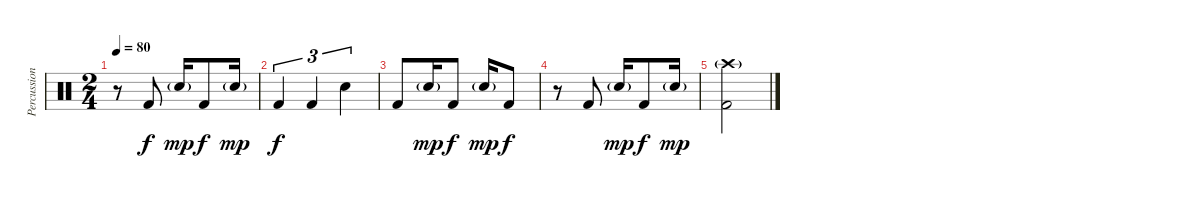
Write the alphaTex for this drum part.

\track ("Percussion" "Percussion") {solo instrument percussion}
\staff {score}
\articulation defaults
\ts (2 4)
\tempo 80
\clef neutral
\ks c
r.8{dy f} "Kick (hit) 2".8 "Snare (hit) 2"{g}.16{dy mp} "Kick (hit) 2".8{dy f} "Snare (hit) 2"{g}.16{dy mp} |
"Kick (hit) 2".4{tu (3 2) dy f} "Kick (hit) 2".4{tu (3 2)} "Snare (hit) 2".4{tu (3 2)} |
"Kick (hit) 2".8 "Snare (hit) 2"{g}.16{dy mp} "Kick (hit) 2".8{dy f} "Snare (hit) 2"{g}.16{dy mp} "Kick (hit) 2".8{dy f} |
r.8 "Kick (hit) 2".8 "Snare (hit) 2"{g}.16{dy mp} "Kick (hit) 2".8{dy f} "Snare (hit) 2"{g}.16{dy mp} |
("Crash high (hit)"{g} "Kick (hit) 2").2
